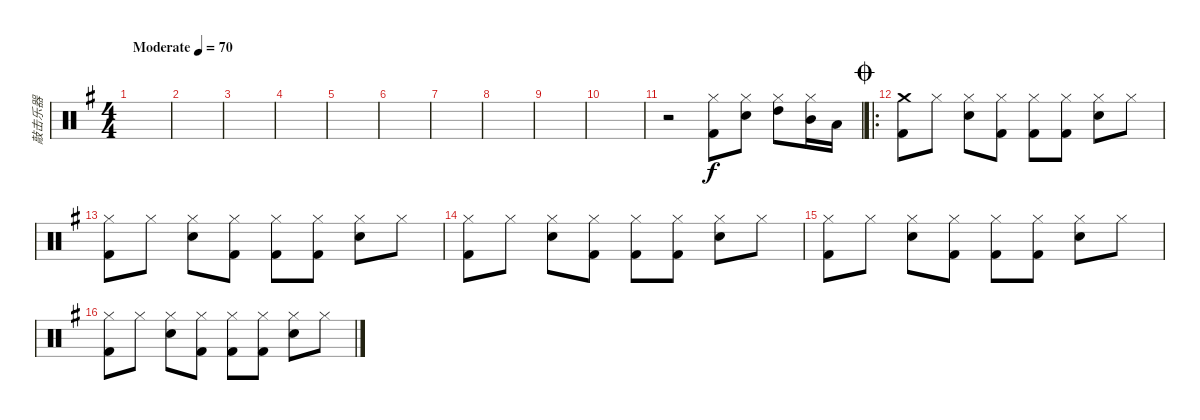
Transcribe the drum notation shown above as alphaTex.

\track ("敲击乐器" "敲击乐器") {solo instrument percussion}
\staff {score}
\articulation defaults
\ts (4 4)
\tempo (70 "Moderate")
\clef neutral
\ks g
|
|
|
|
|
|
|
|
|
|
r.2 ("Kick (hit) 2" "Hi-Hat (closed)").8 ("Hi-Hat (closed)" "Snare (hit) 2").8 ("Hi-Hat (closed)" "High Tom (hit)").8 ("Mid Tom (hit)" "Hi-Hat (closed)").16 "Low Tom (hit)".16 |
\ro
\jump coda
("Kick (hit) 2" "Crash medium (hit)").8 "Hi-Hat (closed)".8 ("Snare (hit) 2" "Hi-Hat (closed)").8 ("Hi-Hat (closed)" "Kick (hit) 2").8 ("Kick (hit) 2" "Hi-Hat (closed)").8 ("Hi-Hat (closed)" "Kick (hit) 2").8 ("Snare (hit) 2" "Hi-Hat (closed)").8 "Hi-Hat (closed)".8 |
("Kick (hit) 2" "Hi-Hat (closed)").8 "Hi-Hat (closed)".8 ("Snare (hit) 2" "Hi-Hat (closed)").8 ("Hi-Hat (closed)" "Kick (hit) 2").8 ("Kick (hit) 2" "Hi-Hat (closed)").8 ("Hi-Hat (closed)" "Kick (hit) 2").8 ("Snare (hit) 2" "Hi-Hat (closed)").8 "Hi-Hat (closed)".8 |
("Kick (hit) 2" "Hi-Hat (closed)").8 "Hi-Hat (closed)".8 ("Snare (hit) 2" "Hi-Hat (closed)").8 ("Hi-Hat (closed)" "Kick (hit) 2").8 ("Kick (hit) 2" "Hi-Hat (closed)").8 ("Hi-Hat (closed)" "Kick (hit) 2").8 ("Snare (hit) 2" "Hi-Hat (closed)").8 "Hi-Hat (closed)".8 |
("Kick (hit) 2" "Hi-Hat (closed)").8 "Hi-Hat (closed)".8 ("Snare (hit) 2" "Hi-Hat (closed)").8 ("Hi-Hat (closed)" "Kick (hit) 2").8 ("Kick (hit) 2" "Hi-Hat (closed)").8 ("Hi-Hat (closed)" "Kick (hit) 2").8 ("Snare (hit) 2" "Hi-Hat (closed)").8 "Hi-Hat (closed)".8 |
("Kick (hit) 2" "Hi-Hat (closed)").8 "Hi-Hat (closed)".8 ("Snare (hit) 2" "Hi-Hat (closed)").8 ("Hi-Hat (closed)" "Kick (hit) 2").8 ("Kick (hit) 2" "Hi-Hat (closed)").8 ("Hi-Hat (closed)" "Kick (hit) 2").8 ("Snare (hit) 2" "Hi-Hat (closed)").8 "Hi-Hat (closed)".8
